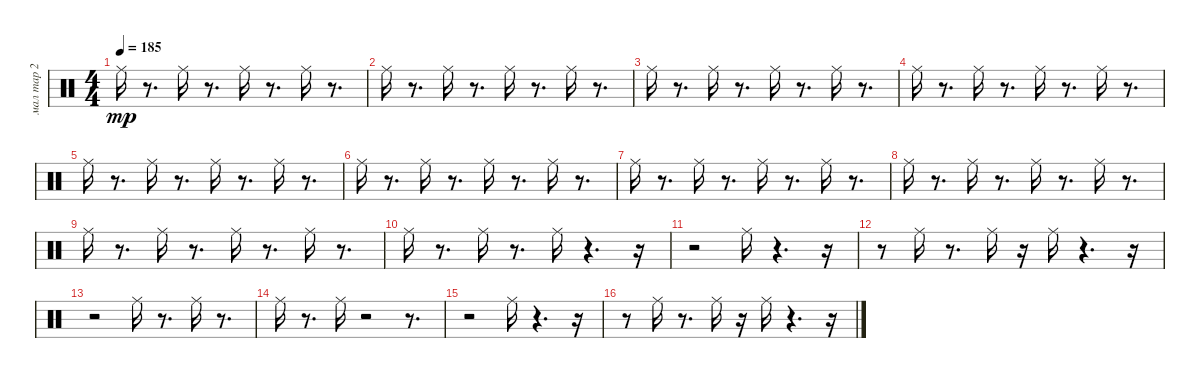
\track ("мал тар 2" "мал тар 2") {instrument percussion}
\staff {score}
\articulation defaults
\ts (4 4)
\tempo 185
\clef neutral
\ks c "Ride (middle)".16{dy mp}
r.8{d} "Ride (middle)".16 r.8{d} "Ride (middle)".16 r.8{d} "Ride (middle)".16 r.8{d} |
"Ride (middle)".16 r.8{d} "Ride (middle)".16 r.8{d} "Ride (middle)".16 r.8{d} "Ride (middle)".16 r.8{d} |
"Ride (middle)".16 r.8{d} "Ride (middle)".16 r.8{d} "Ride (middle)".16 r.8{d} "Ride (middle)".16 r.8{d} |
"Ride (middle)".16 r.8{d} "Ride (middle)".16 r.8{d} "Ride (middle)".16 r.8{d} "Ride (middle)".16 r.8{d} |
"Ride (middle)".16 r.8{d} "Ride (middle)".16 r.8{d} "Ride (middle)".16 r.8{d} "Ride (middle)".16 r.8{d} |
"Ride (middle)".16 r.8{d} "Ride (middle)".16 r.8{d} "Ride (middle)".16 r.8{d} "Ride (middle)".16 r.8{d} |
"Ride (middle)".16 r.8{d} "Ride (middle)".16 r.8{d} "Ride (middle)".16 r.8{d} "Ride (middle)".16 r.8{d} |
"Ride (middle)".16 r.8{d} "Ride (middle)".16 r.8{d} "Ride (middle)".16 r.8{d} "Ride (middle)".16 r.8{d} |
"Ride (middle)".16 r.8{d} "Ride (middle)".16 r.8{d} "Ride (middle)".16 r.8{d} "Ride (middle)".16 r.8{d} |
"Ride (middle)".16 r.8{d} "Ride (middle)".16 r.8{d} "Ride (middle)".16 r.4{d} r.16 |
r.2 "Ride (middle)".16 r.4{d} r.16 |
r.8 "Ride (middle)".16 r.8{d} "Ride (middle)".16 r.16 "Ride (middle)".16 r.4{d} r.16 |
r.2 "Ride (middle)".16 r.8{d} "Ride (middle)".16 r.8{d} |
"Ride (middle)".16 r.8{d} "Ride (middle)".16 r.2 r.8{d} |
r.2 "Ride (middle)".16 r.4{d} r.16 |
r.8 "Ride (middle)".16 r.8{d} "Ride (middle)".16 r.16 "Ride (middle)".16 r.4{d} r.16
